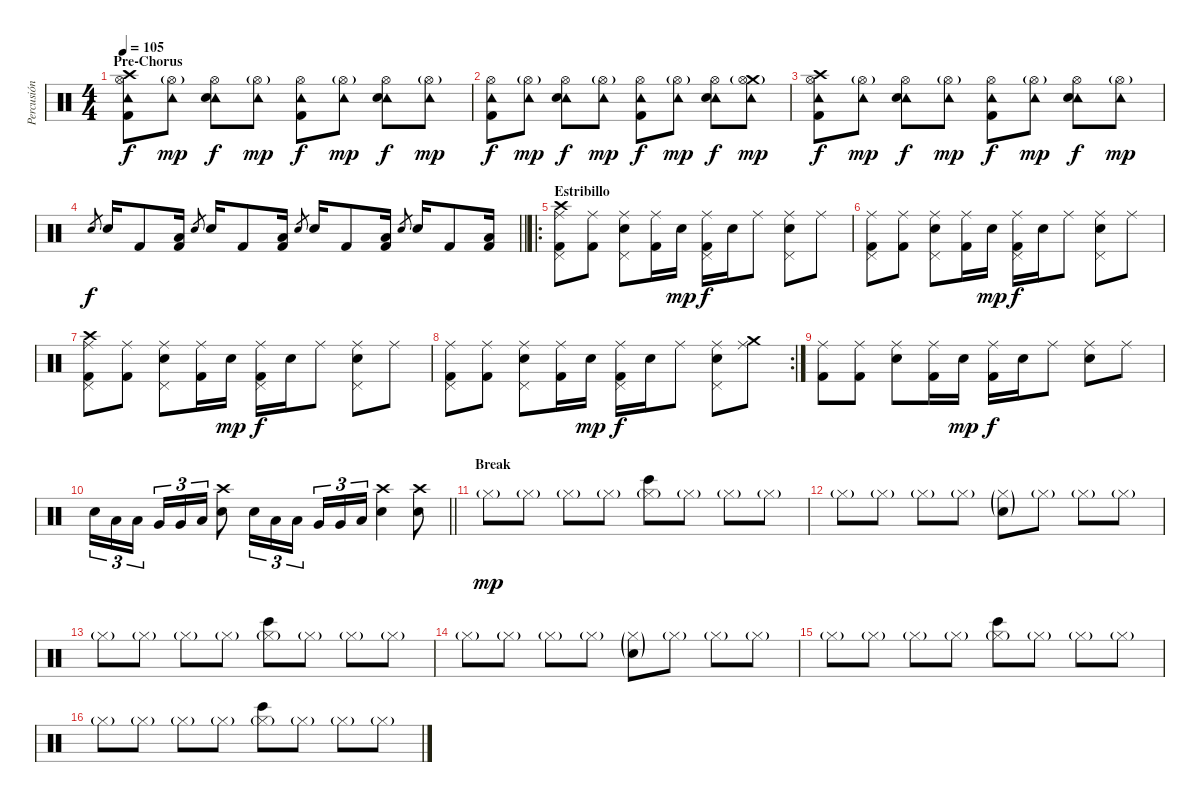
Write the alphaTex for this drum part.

\track ("Percusión" "Percusión") {instrument percussion}
\staff {score}
\articulation defaults
\ts (4 4)
\section ("" "Pre-Chorus")
\tempo 105
\clef neutral
\ks c
("Tambourine (hit)" "Crash high (hit)" "Hi-Hat (open)" "Kick (hit) 2").8{dy f} ("Tambourine (hit)" "Hi-Hat (open)"{g}).8{dy mp} ("Tambourine (hit)" "Hi-Hat (open)" "Electric Snare (hit)").8{dy f} ("Tambourine (hit)" "Hi-Hat (open)"{g}).8{dy mp} ("Tambourine (hit)" "Hi-Hat (open)" "Kick (hit) 2").8{dy f} ("Tambourine (hit)" "Hi-Hat (open)"{g}).8{dy mp} ("Tambourine (hit)" "Hi-Hat (open)" "Electric Snare (hit)").8{dy f} ("Tambourine (hit)" "Hi-Hat (open)"{g}).8{dy mp} |
("Tambourine (hit)" "Hi-Hat (open)" "Kick (hit) 2").8{dy f} ("Tambourine (hit)" "Hi-Hat (open)"{g}).8{dy mp} ("Tambourine (hit)" "Hi-Hat (open)" "Electric Snare (hit)").8{dy f} ("Tambourine (hit)" "Hi-Hat (open)"{g}).8{dy mp} ("Tambourine (hit)" "Hi-Hat (open)" "Kick (hit) 2").8{dy f} ("Tambourine (hit)" "Hi-Hat (open)"{g}).8{dy mp} ("Tambourine (hit)" "Hi-Hat (open)" "Electric Snare (hit)").8{dy f} ("Tambourine (hit)" "Crash medium (hit)" "Hi-Hat (open)"{g}).8{dy mp} |
("Tambourine (hit)" "Crash high (hit)" "Hi-Hat (open)" "Kick (hit) 2").8{dy f} ("Tambourine (hit)" "Hi-Hat (open)"{g}).8{dy mp} ("Tambourine (hit)" "Hi-Hat (open)" "Electric Snare (hit)").8{dy f} ("Tambourine (hit)" "Hi-Hat (open)"{g}).8{dy mp} ("Tambourine (hit)" "Hi-Hat (open)" "Kick (hit) 2").8{dy f} ("Tambourine (hit)" "Hi-Hat (open)"{g}).8{dy mp} ("Tambourine (hit)" "Hi-Hat (open)" "Electric Snare (hit)").8{dy f} ("Tambourine (hit)" "Hi-Hat (open)"{g}).8{dy mp} |
\barLineRight lightlight "Electric Snare (hit)".8{gr dy f} "Electric Snare (hit)".16 "Kick (hit) 2".8
("Low Floor Tom (hit)" "Kick (hit) 2").16 "Electric Snare (hit)".8{gr} "Electric Snare (hit)".16 "Kick (hit) 2".8 ("Low Floor Tom (hit)" "Kick (hit) 2").16 "Electric Snare (hit)".8{gr} "Electric Snare (hit)".16 "Kick (hit) 2".8 ("Low Floor Tom (hit)" "Kick (hit) 2").16 "Electric Snare (hit)".8{gr} "Electric Snare (hit)".16 "Kick (hit) 2".8 ("Low Floor Tom (hit)" "Kick (hit) 2").16 |
\ro
\section ("" "Estribillo")
("Pedal Hi-Hat (hit)" "Crash high (hit)" "Ride (middle)" "Kick (hit) 2").8 ("Ride (middle)" "Kick (hit) 2").8 ("Pedal Hi-Hat (hit)" "Ride (middle)" "Electric Snare (hit)").8 ("Ride (middle)" "Kick (hit) 2").16 "Electric Snare (hit)".16{dy mp} ("Pedal Hi-Hat (hit)" "Ride (middle)" "Kick (hit) 2").16{dy f} "Electric Snare (hit)".16 "Ride (middle)".8 ("Pedal Hi-Hat (hit)" "Ride (middle)" "Electric Snare (hit)").8 "Ride (middle)".8 |
("Pedal Hi-Hat (hit)" "Ride (middle)" "Kick (hit) 2").8 ("Ride (middle)" "Kick (hit) 2").8 ("Pedal Hi-Hat (hit)" "Ride (middle)" "Electric Snare (hit)").8 ("Ride (middle)" "Kick (hit) 2").16 "Electric Snare (hit)".16{dy mp} ("Pedal Hi-Hat (hit)" "Ride (middle)" "Kick (hit) 2").16{dy f} "Electric Snare (hit)".16 "Ride (middle)".8 ("Pedal Hi-Hat (hit)" "Ride (middle)" "Electric Snare (hit)").8 "Ride (middle)".8 |
("Pedal Hi-Hat (hit)" "Crash high (hit)" "Ride (middle)" "Kick (hit) 2").8 ("Ride (middle)" "Kick (hit) 2").8 ("Pedal Hi-Hat (hit)" "Ride (middle)" "Electric Snare (hit)").8 ("Ride (middle)" "Kick (hit) 2").16 "Electric Snare (hit)".16{dy mp} ("Pedal Hi-Hat (hit)" "Ride (middle)" "Kick (hit) 2").16{dy f} "Electric Snare (hit)".16 "Ride (middle)".8 ("Pedal Hi-Hat (hit)" "Ride (middle)" "Electric Snare (hit)").8 "Ride (middle)".8 |
\rc 2
("Pedal Hi-Hat (hit)" "Ride (middle)" "Kick (hit) 2").8 ("Ride (middle)" "Kick (hit) 2").8 ("Pedal Hi-Hat (hit)" "Ride (middle)" "Electric Snare (hit)").8 ("Ride (middle)" "Kick (hit) 2").16 "Electric Snare (hit)".16{dy mp} ("Pedal Hi-Hat (hit)" "Ride (middle)" "Kick (hit) 2").16{dy f} "Electric Snare (hit)".16 "Ride (middle)".8 ("Pedal Hi-Hat (hit)" "Ride (middle)" "Electric Snare (hit)").8 ("Crash medium (hit)" "Ride (middle)").8 |
("Ride (middle)" "Kick (hit) 2").8 ("Ride (middle)" "Kick (hit) 2").8 ("Ride (middle)" "Electric Snare (hit)").8 ("Ride (middle)" "Kick (hit) 2").16 "Electric Snare (hit)".16{dy mp} ("Ride (middle)" "Kick (hit) 2").16{dy f} "Electric Snare (hit)".16 "Ride (middle)".8 ("Ride (middle)" "Electric Snare (hit)").8 "Ride (middle)".8 |
\barLineRight lightlight "Electric Snare (hit)".16{tu (3 2)} "Low Tom (hit)".16{tu (3 2)} "Low Tom (hit)".16{tu (3 2) beam splitsecondary} "Very Low Tom (hit)".16{tu (3 2)} "Very Low Tom (hit)".16{tu (3 2)} "Low Floor Tom (hit)".16{tu (3 2)}
("Crash high (hit)" "Electric Snare (hit)").8 "Electric Snare (hit)".16{tu (3 2)} "Low Tom (hit)".16{tu (3 2)} "Low Tom (hit)".16{tu (3 2)} "Very Low Tom (hit)".16{tu (3 2)} "Very Low Tom (hit)".16{tu (3 2)} "Low Floor Tom (hit)".16{tu (3 2)} ("Crash high (hit)" "Electric Snare (hit)").4 ("Crash high (hit)" "Electric Snare (hit)").8 |
\section ("" "Break")
"Hi-Hat (closed)"{g}.8{dy mp} "Hi-Hat (closed)"{g}.8 "Hi-Hat (closed)"{g}.8 "Hi-Hat (closed)"{g}.8 ("Hi-Hat (closed)"{g} "Bongo High (hit)").8 "Hi-Hat (closed)"{g}.8 "Hi-Hat (closed)"{g}.8 "Hi-Hat (closed)"{g}.8 |
"Hi-Hat (closed)"{g}.8 "Hi-Hat (closed)"{g}.8 "Hi-Hat (closed)"{g}.8 "Hi-Hat (closed)"{g}.8 ("Hi-Hat (closed)"{g} "Electric Snare (hit)"{g}).8 "Hi-Hat (closed)"{g}.8 "Hi-Hat (closed)"{g}.8 "Hi-Hat (closed)"{g}.8 |
"Hi-Hat (closed)"{g}.8 "Hi-Hat (closed)"{g}.8 "Hi-Hat (closed)"{g}.8 "Hi-Hat (closed)"{g}.8 ("Hi-Hat (closed)"{g} "Bongo High (hit)").8 "Hi-Hat (closed)"{g}.8 "Hi-Hat (closed)"{g}.8 "Hi-Hat (closed)"{g}.8 |
"Hi-Hat (closed)"{g}.8 "Hi-Hat (closed)"{g}.8 "Hi-Hat (closed)"{g}.8 "Hi-Hat (closed)"{g}.8 ("Hi-Hat (closed)"{g} "Electric Snare (hit)"{g}).8 "Hi-Hat (closed)"{g}.8 "Hi-Hat (closed)"{g}.8 "Hi-Hat (closed)"{g}.8 |
"Hi-Hat (closed)"{g}.8 "Hi-Hat (closed)"{g}.8 "Hi-Hat (closed)"{g}.8 "Hi-Hat (closed)"{g}.8 ("Hi-Hat (closed)"{g} "Bongo High (hit)").8 "Hi-Hat (closed)"{g}.8 "Hi-Hat (closed)"{g}.8 "Hi-Hat (closed)"{g}.8 |
"Hi-Hat (closed)"{g}.8 "Hi-Hat (closed)"{g}.8 "Hi-Hat (closed)"{g}.8 "Hi-Hat (closed)"{g}.8 ("Hi-Hat (closed)"{g} "Bongo High (hit)").8 "Hi-Hat (closed)"{g}.8 "Hi-Hat (closed)"{g}.8 "Hi-Hat (closed)"{g}.8
